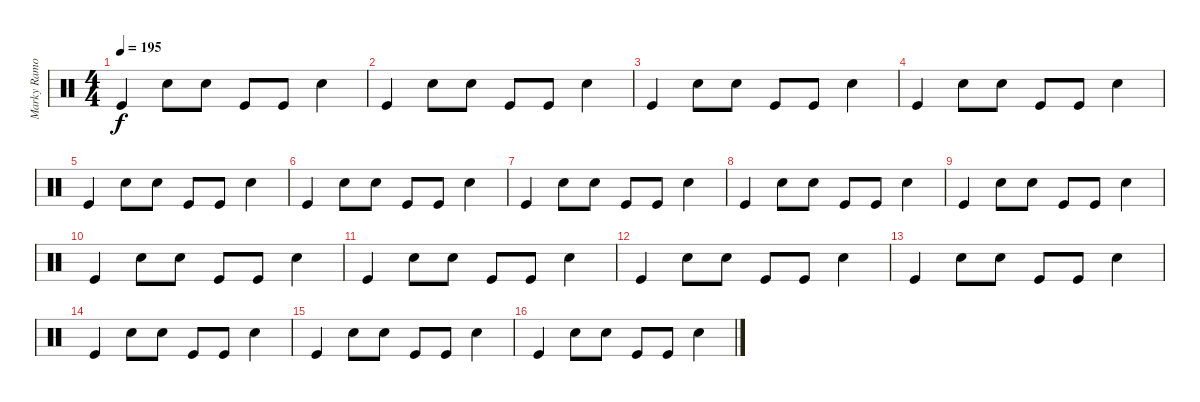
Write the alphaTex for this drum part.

\track ("Marky Ramone" "Marky Ramo") {instrument percussion}
\staff {score}
\articulation defaults
\ts (4 4)
\tempo 195
\clef neutral
\ks c "Kick (hit)".4{dy f} "Electric Snare (hit)".8 "Electric Snare (hit)".8 "Kick (hit)".8 "Kick (hit)".8 "Electric Snare (hit)".4
|
"Kick (hit)".4 "Electric Snare (hit)".8 "Electric Snare (hit)".8 "Kick (hit)".8 "Kick (hit)".8 "Electric Snare (hit)".4 |
"Kick (hit)".4 "Electric Snare (hit)".8 "Electric Snare (hit)".8 "Kick (hit)".8 "Kick (hit)".8 "Electric Snare (hit)".4 |
"Kick (hit)".4 "Electric Snare (hit)".8 "Electric Snare (hit)".8 "Kick (hit)".8 "Kick (hit)".8 "Electric Snare (hit)".4 |
"Kick (hit)".4 "Electric Snare (hit)".8 "Electric Snare (hit)".8 "Kick (hit)".8 "Kick (hit)".8 "Electric Snare (hit)".4 |
"Kick (hit)".4 "Electric Snare (hit)".8 "Electric Snare (hit)".8 "Kick (hit)".8 "Kick (hit)".8 "Electric Snare (hit)".4 |
"Kick (hit)".4 "Electric Snare (hit)".8 "Electric Snare (hit)".8 "Kick (hit)".8 "Kick (hit)".8 "Electric Snare (hit)".4 |
"Kick (hit)".4 "Electric Snare (hit)".8 "Electric Snare (hit)".8 "Kick (hit)".8 "Kick (hit)".8 "Electric Snare (hit)".4 |
"Kick (hit)".4 "Electric Snare (hit)".8 "Electric Snare (hit)".8 "Kick (hit)".8 "Kick (hit)".8 "Electric Snare (hit)".4 |
"Kick (hit)".4 "Electric Snare (hit)".8 "Electric Snare (hit)".8 "Kick (hit)".8 "Kick (hit)".8 "Electric Snare (hit)".4 |
"Kick (hit)".4 "Electric Snare (hit)".8 "Electric Snare (hit)".8 "Kick (hit)".8 "Kick (hit)".8 "Electric Snare (hit)".4 |
"Kick (hit)".4 "Electric Snare (hit)".8 "Electric Snare (hit)".8 "Kick (hit)".8 "Kick (hit)".8 "Electric Snare (hit)".4 |
"Kick (hit)".4 "Electric Snare (hit)".8 "Electric Snare (hit)".8 "Kick (hit)".8 "Kick (hit)".8 "Electric Snare (hit)".4 |
"Kick (hit)".4 "Electric Snare (hit)".8 "Electric Snare (hit)".8 "Kick (hit)".8 "Kick (hit)".8 "Electric Snare (hit)".4 |
"Kick (hit)".4 "Electric Snare (hit)".8 "Electric Snare (hit)".8 "Kick (hit)".8 "Kick (hit)".8 "Electric Snare (hit)".4 |
"Kick (hit)".4 "Electric Snare (hit)".8 "Electric Snare (hit)".8 "Kick (hit)".8 "Kick (hit)".8 "Electric Snare (hit)".4
